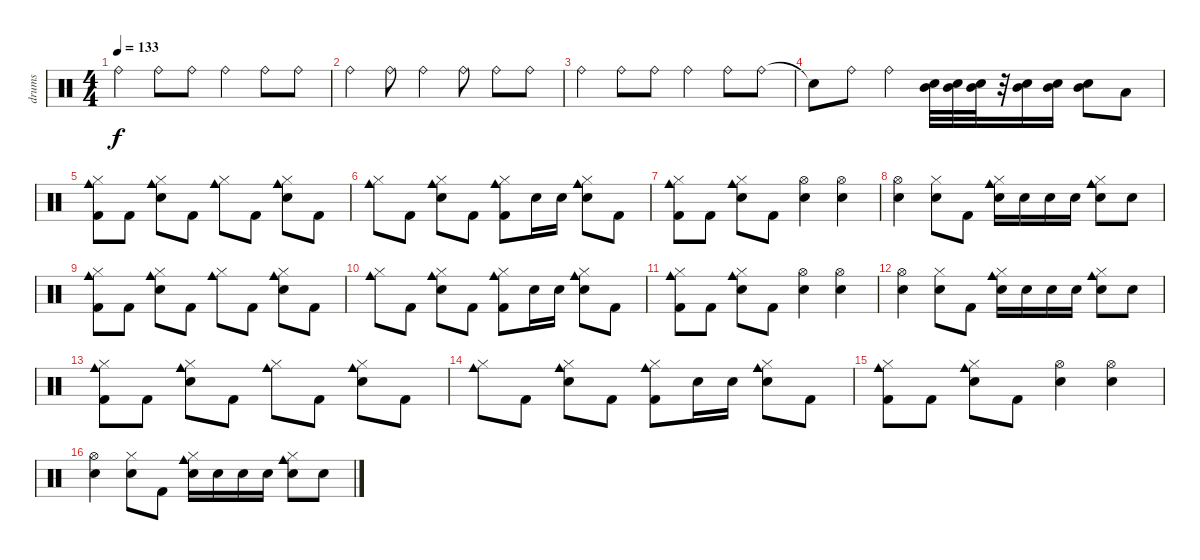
\track ("drums" "drums") {instrument percussion}
\staff {score}
\articulation defaults
\ts (4 4)
\tempo 133
\clef neutral
\ks c "Ride (bell)".4{dy f} "Ride (bell)".8 "Ride (bell)".8 "Ride (bell)".4 "Ride (bell)".8 "Ride (bell)".8
|
"Ride (bell)".4 "Ride (bell)".8 "Ride (bell)".4 "Ride (bell)".8 "Ride (bell)".8 "Ride (bell)".8 |
"Ride (bell)".4 "Ride (bell)".8 "Ride (bell)".8 "Ride (bell)".4 "Ride (bell)".8 "Ride (bell)".8 |
"Snare (hit)"{t}.8 "Ride (bell)".8 "Ride (bell)".4 ("Electric Snare (hit)" "Mid Tom (hit)").32 ("Electric Snare (hit)" "Mid Tom (hit)").32 ("Electric Snare (hit)" "Mid Tom (hit)").32 r.32 ("Electric Snare (hit)" "Mid Tom (hit)").16 ("Electric Snare (hit)" "Mid Tom (hit)").16 ("Electric Snare (hit)" "Mid Tom (hit)").8 "Low Tom (hit)".8 |
("Kick (hit) 2" "Cowbell medium (hit)" "Hi-Hat (closed)").8 "Kick (hit) 2".8 ("Electric Snare (hit)" "Cowbell medium (hit)" "Hi-Hat (closed)").8 "Kick (hit) 2".8 ("Cowbell medium (hit)" "Hi-Hat (closed)").8 "Kick (hit) 2".8 ("Electric Snare (hit)" "Cowbell medium (hit)" "Hi-Hat (closed)").8 "Kick (hit) 2".8 |
("Cowbell medium (hit)" "Hi-Hat (closed)").8 "Kick (hit) 2".8 ("Electric Snare (hit)" "Cowbell medium (hit)" "Hi-Hat (closed)").8 "Kick (hit) 2".8 ("Kick (hit) 2" "Cowbell medium (hit)" "Hi-Hat (closed)").8 "Electric Snare (hit)".16 "Electric Snare (hit)".16 ("Electric Snare (hit)" "Cowbell medium (hit)" "Hi-Hat (closed)").8 "Kick (hit) 2".8 |
("Kick (hit) 2" "Cowbell medium (hit)" "Hi-Hat (closed)").8 "Kick (hit) 2".8 ("Electric Snare (hit)" "Cowbell medium (hit)" "Hi-Hat (closed)").8 "Kick (hit) 2".8 ("Electric Snare (hit)" "Hi-Hat (open)").4 ("Electric Snare (hit)" "Hi-Hat (open)").4 |
("Electric Snare (hit)" "Hi-Hat (open)").4 ("Electric Snare (hit)" "Hi-Hat (closed)").8 "Kick (hit) 2".8 ("Electric Snare (hit)" "Cowbell medium (hit)" "Hi-Hat (closed)").16 "Electric Snare (hit)".16 "Electric Snare (hit)".16 "Electric Snare (hit)".16 ("Electric Snare (hit)" "Cowbell medium (hit)" "Hi-Hat (closed)").8 "Electric Snare (hit)".8 |
("Kick (hit) 2" "Cowbell medium (hit)" "Hi-Hat (closed)").8 "Kick (hit) 2".8 ("Electric Snare (hit)" "Cowbell medium (hit)" "Hi-Hat (closed)").8 "Kick (hit) 2".8 ("Cowbell medium (hit)" "Hi-Hat (closed)").8 "Kick (hit) 2".8 ("Electric Snare (hit)" "Cowbell medium (hit)" "Hi-Hat (closed)").8 "Kick (hit) 2".8 |
("Cowbell medium (hit)" "Hi-Hat (closed)").8 "Kick (hit) 2".8 ("Electric Snare (hit)" "Cowbell medium (hit)" "Hi-Hat (closed)").8 "Kick (hit) 2".8 ("Kick (hit) 2" "Cowbell medium (hit)" "Hi-Hat (closed)").8 "Electric Snare (hit)".16 "Electric Snare (hit)".16 ("Electric Snare (hit)" "Cowbell medium (hit)" "Hi-Hat (closed)").8 "Kick (hit) 2".8 |
("Kick (hit) 2" "Cowbell medium (hit)" "Hi-Hat (closed)").8 "Kick (hit) 2".8 ("Electric Snare (hit)" "Cowbell medium (hit)" "Hi-Hat (closed)").8 "Kick (hit) 2".8 ("Electric Snare (hit)" "Hi-Hat (open)").4 ("Electric Snare (hit)" "Hi-Hat (open)").4 |
("Electric Snare (hit)" "Hi-Hat (open)").4 ("Electric Snare (hit)" "Hi-Hat (closed)").8 "Kick (hit) 2".8 ("Electric Snare (hit)" "Cowbell medium (hit)" "Hi-Hat (closed)").16 "Electric Snare (hit)".16 "Electric Snare (hit)".16 "Electric Snare (hit)".16 ("Electric Snare (hit)" "Cowbell medium (hit)" "Hi-Hat (closed)").8 "Electric Snare (hit)".8 |
("Kick (hit) 2" "Cowbell medium (hit)" "Hi-Hat (closed)").8 "Kick (hit) 2".8 ("Electric Snare (hit)" "Cowbell medium (hit)" "Hi-Hat (closed)").8 "Kick (hit) 2".8 ("Cowbell medium (hit)" "Hi-Hat (closed)").8 "Kick (hit) 2".8 ("Electric Snare (hit)" "Cowbell medium (hit)" "Hi-Hat (closed)").8 "Kick (hit) 2".8 |
("Cowbell medium (hit)" "Hi-Hat (closed)").8 "Kick (hit) 2".8 ("Electric Snare (hit)" "Cowbell medium (hit)" "Hi-Hat (closed)").8 "Kick (hit) 2".8 ("Kick (hit) 2" "Cowbell medium (hit)" "Hi-Hat (closed)").8 "Electric Snare (hit)".16 "Electric Snare (hit)".16 ("Electric Snare (hit)" "Cowbell medium (hit)" "Hi-Hat (closed)").8 "Kick (hit) 2".8 |
("Kick (hit) 2" "Cowbell medium (hit)" "Hi-Hat (closed)").8 "Kick (hit) 2".8 ("Electric Snare (hit)" "Cowbell medium (hit)" "Hi-Hat (closed)").8 "Kick (hit) 2".8 ("Electric Snare (hit)" "Hi-Hat (open)").4 ("Electric Snare (hit)" "Hi-Hat (open)").4 |
("Electric Snare (hit)" "Hi-Hat (open)").4 ("Electric Snare (hit)" "Hi-Hat (closed)").8 "Kick (hit) 2".8 ("Electric Snare (hit)" "Cowbell medium (hit)" "Hi-Hat (closed)").16 "Electric Snare (hit)".16 "Electric Snare (hit)".16 "Electric Snare (hit)".16 ("Electric Snare (hit)" "Cowbell medium (hit)" "Hi-Hat (closed)").8 "Electric Snare (hit)".8
